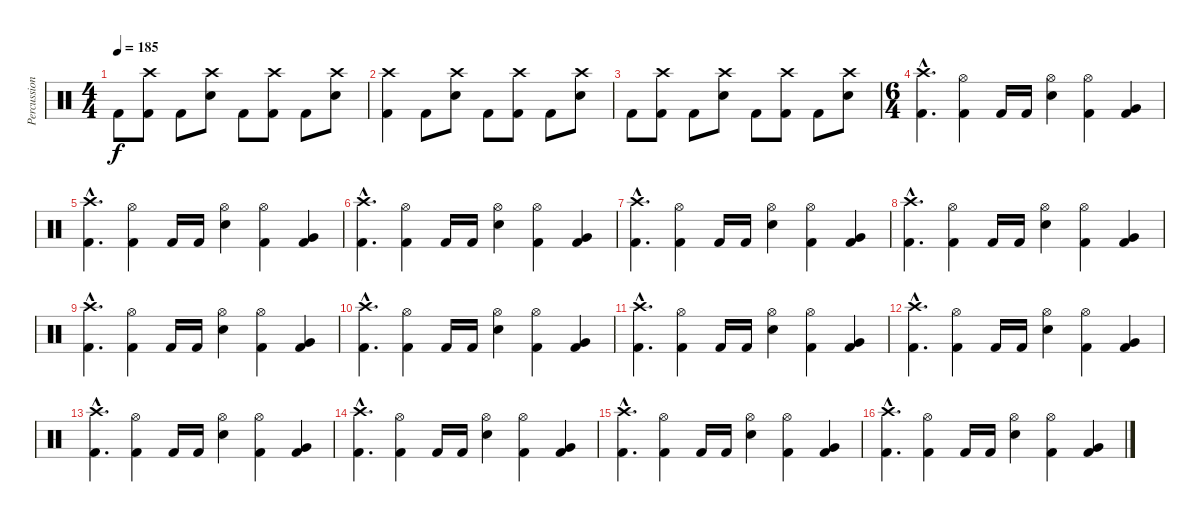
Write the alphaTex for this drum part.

\track ("Percussion" "Percussion") {instrument percussion}
\staff {score}
\articulation defaults
\ts (4 4)
\tempo 185
\clef neutral
\ks c "Kick (hit) 2".8{dy f}
("Crash high (hit)" "Kick (hit) 2").8 "Kick (hit) 2".8 ("Crash high (hit)" "Electric Snare (hit)").8 "Kick (hit) 2".8 ("Crash high (hit)" "Kick (hit) 2").8 "Kick (hit) 2".8 ("Crash high (hit)" "Electric Snare (hit)").8 |
("Crash high (hit)" "Kick (hit) 2").4 "Kick (hit) 2".8 ("Crash high (hit)" "Electric Snare (hit)").8 "Kick (hit) 2".8 ("Crash high (hit)" "Kick (hit) 2").8 "Kick (hit) 2".8 ("Crash high (hit)" "Electric Snare (hit)").8 |
"Kick (hit) 2".8 ("Crash high (hit)" "Kick (hit) 2").8 "Kick (hit) 2".8 ("Crash high (hit)" "Electric Snare (hit)").8 "Kick (hit) 2".8 ("Crash high (hit)" "Kick (hit) 2").8 "Kick (hit) 2".8 ("Crash high (hit)" "Electric Snare (hit)").8 |
\ts (6 4)
("Crash high (hit)"{hac} "Kick (hit) 2"{hac}).4{d} ("Hi-Hat (open)" "Kick (hit) 2").4 "Kick (hit) 2".16 "Kick (hit) 2".16 ("Hi-Hat (open)" "Electric Snare (hit)").4 ("Hi-Hat (open)" "Kick (hit) 2").4 ("Very Low Tom (hit)" "Kick (hit) 2").4 |
("Crash high (hit)"{hac} "Kick (hit) 2"{hac}).4{d} ("Hi-Hat (open)" "Kick (hit) 2").4 "Kick (hit) 2".16 "Kick (hit) 2".16 ("Hi-Hat (open)" "Electric Snare (hit)").4 ("Hi-Hat (open)" "Kick (hit) 2").4 ("Very Low Tom (hit)" "Kick (hit) 2").4 |
("Crash high (hit)"{hac} "Kick (hit) 2"{hac}).4{d} ("Hi-Hat (open)" "Kick (hit) 2").4 "Kick (hit) 2".16 "Kick (hit) 2".16 ("Hi-Hat (open)" "Electric Snare (hit)").4 ("Hi-Hat (open)" "Kick (hit) 2").4 ("Very Low Tom (hit)" "Kick (hit) 2").4 |
("Crash high (hit)"{hac} "Kick (hit) 2"{hac}).4{d} ("Hi-Hat (open)" "Kick (hit) 2").4 "Kick (hit) 2".16 "Kick (hit) 2".16 ("Hi-Hat (open)" "Electric Snare (hit)").4 ("Hi-Hat (open)" "Kick (hit) 2").4 ("Very Low Tom (hit)" "Kick (hit) 2").4 |
("Crash high (hit)"{hac} "Kick (hit) 2"{hac}).4{d} ("Hi-Hat (open)" "Kick (hit) 2").4 "Kick (hit) 2".16 "Kick (hit) 2".16 ("Hi-Hat (open)" "Electric Snare (hit)").4 ("Hi-Hat (open)" "Kick (hit) 2").4 ("Very Low Tom (hit)" "Kick (hit) 2").4 |
("Crash high (hit)"{hac} "Kick (hit) 2"{hac}).4{d} ("Hi-Hat (open)" "Kick (hit) 2").4 "Kick (hit) 2".16 "Kick (hit) 2".16 ("Hi-Hat (open)" "Electric Snare (hit)").4 ("Hi-Hat (open)" "Kick (hit) 2").4 ("Very Low Tom (hit)" "Kick (hit) 2").4 |
("Crash high (hit)"{hac} "Kick (hit) 2"{hac}).4{d} ("Hi-Hat (open)" "Kick (hit) 2").4 "Kick (hit) 2".16 "Kick (hit) 2".16 ("Hi-Hat (open)" "Electric Snare (hit)").4 ("Hi-Hat (open)" "Kick (hit) 2").4 ("Very Low Tom (hit)" "Kick (hit) 2").4 |
("Crash high (hit)"{hac} "Kick (hit) 2"{hac}).4{d} ("Hi-Hat (open)" "Kick (hit) 2").4 "Kick (hit) 2".16 "Kick (hit) 2".16 ("Hi-Hat (open)" "Electric Snare (hit)").4 ("Hi-Hat (open)" "Kick (hit) 2").4 ("Very Low Tom (hit)" "Kick (hit) 2").4 |
("Crash high (hit)"{hac} "Kick (hit) 2"{hac}).4{d} ("Hi-Hat (open)" "Kick (hit) 2").4 "Kick (hit) 2".16 "Kick (hit) 2".16 ("Hi-Hat (open)" "Electric Snare (hit)").4 ("Hi-Hat (open)" "Kick (hit) 2").4 ("Very Low Tom (hit)" "Kick (hit) 2").4 |
("Crash high (hit)"{hac} "Kick (hit) 2"{hac}).4{d} ("Hi-Hat (open)" "Kick (hit) 2").4 "Kick (hit) 2".16 "Kick (hit) 2".16 ("Hi-Hat (open)" "Electric Snare (hit)").4 ("Hi-Hat (open)" "Kick (hit) 2").4 ("Very Low Tom (hit)" "Kick (hit) 2").4 |
("Crash high (hit)"{hac} "Kick (hit) 2"{hac}).4{d} ("Hi-Hat (open)" "Kick (hit) 2").4 "Kick (hit) 2".16 "Kick (hit) 2".16 ("Hi-Hat (open)" "Electric Snare (hit)").4 ("Hi-Hat (open)" "Kick (hit) 2").4 ("Very Low Tom (hit)" "Kick (hit) 2").4 |
("Crash high (hit)"{hac} "Kick (hit) 2"{hac}).4{d} ("Hi-Hat (open)" "Kick (hit) 2").4 "Kick (hit) 2".16 "Kick (hit) 2".16 ("Hi-Hat (open)" "Electric Snare (hit)").4 ("Hi-Hat (open)" "Kick (hit) 2").4 ("Very Low Tom (hit)" "Kick (hit) 2").4 |
("Crash high (hit)"{hac} "Kick (hit) 2"{hac}).4{d} ("Hi-Hat (open)" "Kick (hit) 2").4 "Kick (hit) 2".16 "Kick (hit) 2".16 ("Hi-Hat (open)" "Electric Snare (hit)").4 ("Hi-Hat (open)" "Kick (hit) 2").4 ("Very Low Tom (hit)" "Kick (hit) 2").4
